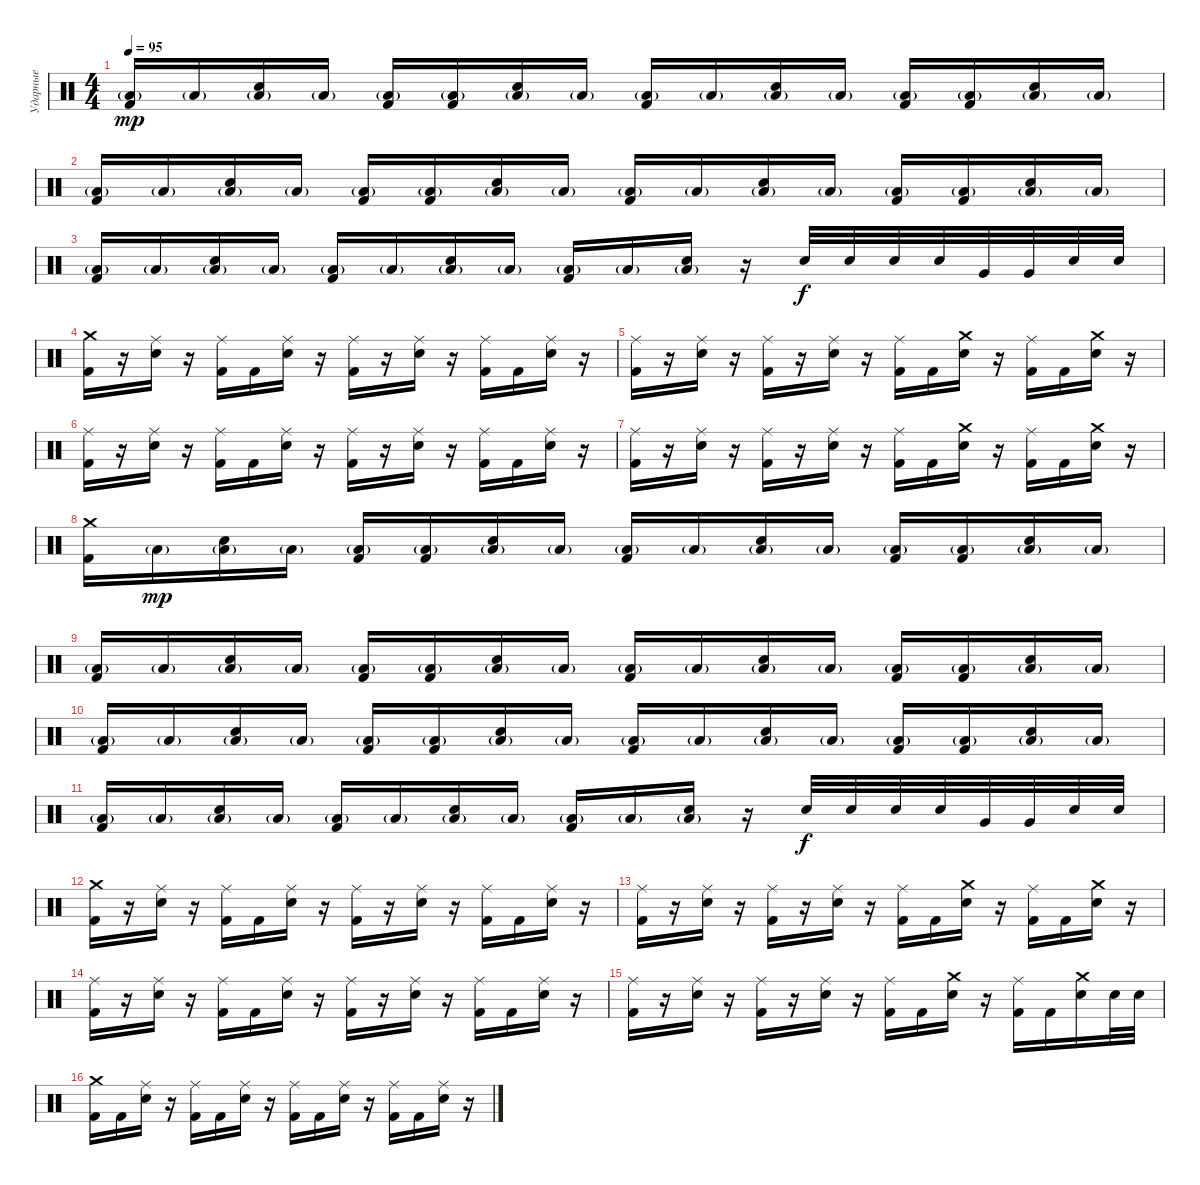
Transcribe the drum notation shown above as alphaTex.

\track ("Ударные" "Ударные") {instrument percussion}
\staff {score}
\articulation defaults
\ts (4 4)
\tempo 95
\clef neutral
\ks c
("Low Floor Tom (hit)"{g} "Kick (hit) 2").16{dy mp} "Low Floor Tom (hit)"{g}.16 ("Low Floor Tom (hit)"{g} "Electric Snare (hit)").16 "Low Floor Tom (hit)"{g}.16 ("Low Floor Tom (hit)"{g} "Kick (hit) 2").16 ("Low Floor Tom (hit)"{g} "Kick (hit) 2").16 ("Low Floor Tom (hit)"{g} "Electric Snare (hit)").16 "Low Floor Tom (hit)"{g}.16 ("Low Floor Tom (hit)"{g} "Kick (hit) 2").16 "Low Floor Tom (hit)"{g}.16 ("Low Floor Tom (hit)"{g} "Electric Snare (hit)").16 "Low Floor Tom (hit)"{g}.16 ("Low Floor Tom (hit)"{g} "Kick (hit) 2").16 ("Low Floor Tom (hit)"{g} "Kick (hit) 2").16 ("Low Floor Tom (hit)"{g} "Electric Snare (hit)").16 "Low Floor Tom (hit)"{g}.16 |
("Low Floor Tom (hit)"{g} "Kick (hit) 2").16 "Low Floor Tom (hit)"{g}.16 ("Low Floor Tom (hit)"{g} "Electric Snare (hit)").16 "Low Floor Tom (hit)"{g}.16 ("Low Floor Tom (hit)"{g} "Kick (hit) 2").16 ("Low Floor Tom (hit)"{g} "Kick (hit) 2").16 ("Low Floor Tom (hit)"{g} "Electric Snare (hit)").16 "Low Floor Tom (hit)"{g}.16 ("Low Floor Tom (hit)"{g} "Kick (hit) 2").16 "Low Floor Tom (hit)"{g}.16 ("Low Floor Tom (hit)"{g} "Electric Snare (hit)").16 "Low Floor Tom (hit)"{g}.16 ("Low Floor Tom (hit)"{g} "Kick (hit) 2").16 ("Low Floor Tom (hit)"{g} "Kick (hit) 2").16 ("Low Floor Tom (hit)"{g} "Electric Snare (hit)").16 "Low Floor Tom (hit)"{g}.16 |
("Low Floor Tom (hit)"{g} "Kick (hit) 2").16 "Low Floor Tom (hit)"{g}.16 ("Low Floor Tom (hit)"{g} "Electric Snare (hit)").16 "Low Floor Tom (hit)"{g}.16 ("Low Floor Tom (hit)"{g} "Kick (hit) 2").16 "Low Floor Tom (hit)"{g}.16 ("Low Floor Tom (hit)"{g} "Electric Snare (hit)").16 "Low Floor Tom (hit)"{g}.16 ("Low Floor Tom (hit)"{g} "Kick (hit) 2").16 "Low Floor Tom (hit)"{g}.16 ("Low Floor Tom (hit)"{g} "Electric Snare (hit)").16 r.16 "Electric Snare (hit)".32{dy f} "Electric Snare (hit)".32 "Electric Snare (hit)".32 "Electric Snare (hit)".32 "Very Low Tom (hit)".32 "Very Low Tom (hit)".32 "Electric Snare (hit)".32 "Electric Snare (hit)".32 |
("Crash medium (hit)" "Kick (hit) 2").16 r.16 ("Ride (middle)" "Electric Snare (hit)").16 r.16 ("Ride (middle)" "Kick (hit) 2").16 "Kick (hit) 2".16 ("Ride (middle)" "Electric Snare (hit)").16 r.16 ("Ride (middle)" "Kick (hit) 2").16 r.16 ("Ride (middle)" "Electric Snare (hit)").16 r.16 ("Ride (middle)" "Kick (hit) 2").16 "Kick (hit) 2".16 ("Ride (middle)" "Electric Snare (hit)").16 r.16 |
("Ride (middle)" "Kick (hit) 2").16 r.16 ("Ride (middle)" "Electric Snare (hit)").16 r.16 ("Ride (middle)" "Kick (hit) 2").16 r.16 ("Ride (middle)" "Electric Snare (hit)").16 r.16 ("Ride (middle)" "Kick (hit) 2").16 "Kick (hit) 2".16 ("Crash medium (hit)" "Electric Snare (hit)").16 r.16 ("Ride (middle)" "Kick (hit) 2").16 "Kick (hit) 2".16 ("Crash medium (hit)" "Electric Snare (hit)").16 r.16 |
("Ride (middle)" "Kick (hit) 2").16 r.16 ("Ride (middle)" "Electric Snare (hit)").16 r.16 ("Ride (middle)" "Kick (hit) 2").16 "Kick (hit) 2".16 ("Ride (middle)" "Electric Snare (hit)").16 r.16 ("Ride (middle)" "Kick (hit) 2").16 r.16 ("Ride (middle)" "Electric Snare (hit)").16 r.16 ("Ride (middle)" "Kick (hit) 2").16 "Kick (hit) 2".16 ("Ride (middle)" "Electric Snare (hit)").16 r.16 |
("Ride (middle)" "Kick (hit) 2").16 r.16 ("Ride (middle)" "Electric Snare (hit)").16 r.16 ("Ride (middle)" "Kick (hit) 2").16 r.16 ("Ride (middle)" "Electric Snare (hit)").16 r.16 ("Ride (middle)" "Kick (hit) 2").16 "Kick (hit) 2".16 ("Crash medium (hit)" "Electric Snare (hit)").16 r.16 ("Ride (middle)" "Kick (hit) 2").16 "Kick (hit) 2".16 ("Crash medium (hit)" "Electric Snare (hit)").16 r.16 |
("Crash medium (hit)" "Kick (hit) 2").16 "Low Floor Tom (hit)"{g}.16{dy mp} ("Low Floor Tom (hit)"{g} "Electric Snare (hit)").16 "Low Floor Tom (hit)"{g}.16 ("Low Floor Tom (hit)"{g} "Kick (hit) 2").16 ("Low Floor Tom (hit)"{g} "Kick (hit) 2").16 ("Low Floor Tom (hit)"{g} "Electric Snare (hit)").16 "Low Floor Tom (hit)"{g}.16 ("Low Floor Tom (hit)"{g} "Kick (hit) 2").16 "Low Floor Tom (hit)"{g}.16 ("Low Floor Tom (hit)"{g} "Electric Snare (hit)").16 "Low Floor Tom (hit)"{g}.16 ("Low Floor Tom (hit)"{g} "Kick (hit) 2").16 ("Low Floor Tom (hit)"{g} "Kick (hit) 2").16 ("Low Floor Tom (hit)"{g} "Electric Snare (hit)").16 "Low Floor Tom (hit)"{g}.16 |
("Low Floor Tom (hit)"{g} "Kick (hit) 2").16 "Low Floor Tom (hit)"{g}.16 ("Low Floor Tom (hit)"{g} "Electric Snare (hit)").16 "Low Floor Tom (hit)"{g}.16 ("Low Floor Tom (hit)"{g} "Kick (hit) 2").16 ("Low Floor Tom (hit)"{g} "Kick (hit) 2").16 ("Low Floor Tom (hit)"{g} "Electric Snare (hit)").16 "Low Floor Tom (hit)"{g}.16 ("Low Floor Tom (hit)"{g} "Kick (hit) 2").16 "Low Floor Tom (hit)"{g}.16 ("Low Floor Tom (hit)"{g} "Electric Snare (hit)").16 "Low Floor Tom (hit)"{g}.16 ("Low Floor Tom (hit)"{g} "Kick (hit) 2").16 ("Low Floor Tom (hit)"{g} "Kick (hit) 2").16 ("Low Floor Tom (hit)"{g} "Electric Snare (hit)").16 "Low Floor Tom (hit)"{g}.16 |
("Low Floor Tom (hit)"{g} "Kick (hit) 2").16 "Low Floor Tom (hit)"{g}.16 ("Low Floor Tom (hit)"{g} "Electric Snare (hit)").16 "Low Floor Tom (hit)"{g}.16 ("Low Floor Tom (hit)"{g} "Kick (hit) 2").16 ("Low Floor Tom (hit)"{g} "Kick (hit) 2").16 ("Low Floor Tom (hit)"{g} "Electric Snare (hit)").16 "Low Floor Tom (hit)"{g}.16 ("Low Floor Tom (hit)"{g} "Kick (hit) 2").16 "Low Floor Tom (hit)"{g}.16 ("Low Floor Tom (hit)"{g} "Electric Snare (hit)").16 "Low Floor Tom (hit)"{g}.16 ("Low Floor Tom (hit)"{g} "Kick (hit) 2").16 ("Low Floor Tom (hit)"{g} "Kick (hit) 2").16 ("Low Floor Tom (hit)"{g} "Electric Snare (hit)").16 "Low Floor Tom (hit)"{g}.16 |
("Low Floor Tom (hit)"{g} "Kick (hit) 2").16 "Low Floor Tom (hit)"{g}.16 ("Low Floor Tom (hit)"{g} "Electric Snare (hit)").16 "Low Floor Tom (hit)"{g}.16 ("Low Floor Tom (hit)"{g} "Kick (hit) 2").16 "Low Floor Tom (hit)"{g}.16 ("Low Floor Tom (hit)"{g} "Electric Snare (hit)").16 "Low Floor Tom (hit)"{g}.16 ("Low Floor Tom (hit)"{g} "Kick (hit) 2").16 "Low Floor Tom (hit)"{g}.16 ("Low Floor Tom (hit)"{g} "Electric Snare (hit)").16 r.16 "Electric Snare (hit)".32{dy f} "Electric Snare (hit)".32 "Electric Snare (hit)".32 "Electric Snare (hit)".32 "Very Low Tom (hit)".32 "Very Low Tom (hit)".32 "Electric Snare (hit)".32 "Electric Snare (hit)".32 |
("Crash medium (hit)" "Kick (hit) 2").16 r.16 ("Ride (middle)" "Electric Snare (hit)").16 r.16 ("Ride (middle)" "Kick (hit) 2").16 "Kick (hit) 2".16 ("Ride (middle)" "Electric Snare (hit)").16 r.16 ("Ride (middle)" "Kick (hit) 2").16 r.16 ("Ride (middle)" "Electric Snare (hit)").16 r.16 ("Ride (middle)" "Kick (hit) 2").16 "Kick (hit) 2".16 ("Ride (middle)" "Electric Snare (hit)").16 r.16 |
("Ride (middle)" "Kick (hit) 2").16 r.16 ("Ride (middle)" "Electric Snare (hit)").16 r.16 ("Ride (middle)" "Kick (hit) 2").16 r.16 ("Ride (middle)" "Electric Snare (hit)").16 r.16 ("Ride (middle)" "Kick (hit) 2").16 "Kick (hit) 2".16 ("Crash medium (hit)" "Electric Snare (hit)").16 r.16 ("Ride (middle)" "Kick (hit) 2").16 "Kick (hit) 2".16 ("Crash medium (hit)" "Electric Snare (hit)").16 r.16 |
("Ride (middle)" "Kick (hit) 2").16 r.16 ("Ride (middle)" "Electric Snare (hit)").16 r.16 ("Ride (middle)" "Kick (hit) 2").16 "Kick (hit) 2".16 ("Ride (middle)" "Electric Snare (hit)").16 r.16 ("Ride (middle)" "Kick (hit) 2").16 r.16 ("Ride (middle)" "Electric Snare (hit)").16 r.16 ("Ride (middle)" "Kick (hit) 2").16 "Kick (hit) 2".16 ("Ride (middle)" "Electric Snare (hit)").16 r.16 |
("Ride (middle)" "Kick (hit) 2").16 r.16 ("Ride (middle)" "Electric Snare (hit)").16 r.16 ("Ride (middle)" "Kick (hit) 2").16 r.16 ("Ride (middle)" "Electric Snare (hit)").16 r.16 ("Ride (middle)" "Kick (hit) 2").16 "Kick (hit) 2".16 ("Crash medium (hit)" "Electric Snare (hit)").16 r.16 ("Ride (middle)" "Kick (hit) 2").16 "Kick (hit) 2".16 ("Crash medium (hit)" "Electric Snare (hit)").16 "Electric Snare (hit)".32 "Electric Snare (hit)".32 |
("Crash medium (hit)" "Kick (hit) 2").16 "Kick (hit) 2".16 ("Ride (middle)" "Electric Snare (hit)").16 r.16 ("Ride (middle)" "Kick (hit) 2").16 "Kick (hit) 2".16 ("Ride (middle)" "Electric Snare (hit)").16 r.16 ("Ride (middle)" "Kick (hit) 2").16 "Kick (hit) 2".16 ("Ride (middle)" "Electric Snare (hit)").16 r.16 ("Ride (middle)" "Kick (hit) 2").16 "Kick (hit) 2".16 ("Ride (middle)" "Electric Snare (hit)").16 r.16
